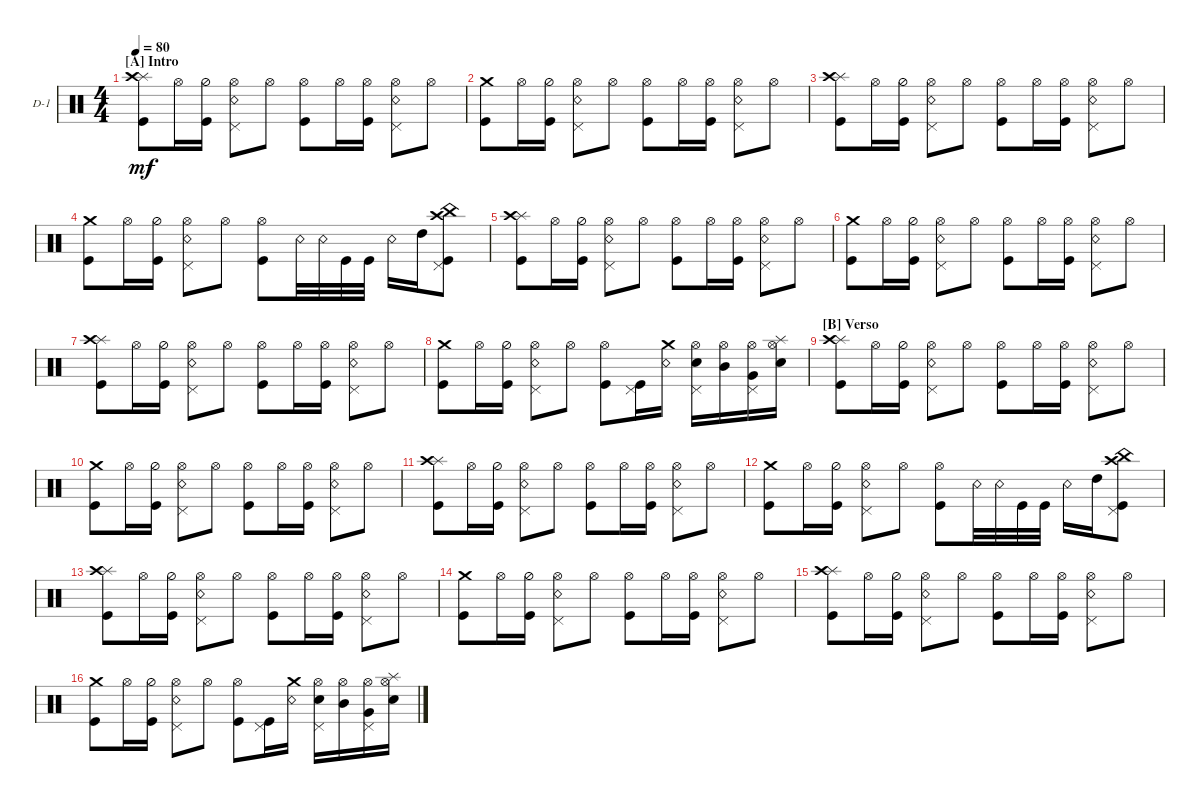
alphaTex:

\defaultSystemsLayout 4
\bracketExtendMode groupsimilarinstruments
\firstSystemTrackNameOrientation horizontal
\otherSystemsTrackNameOrientation horizontal
\track ("Drums" "D-1") {multiBarRest instrument percussion}
\staff {score}
\articulation defaults
\ts (4 4)
\section ("A" "Intro")
\tempo 80
\clef neutral
\ks aminor
("Kick (hit)" "Splash (hit)" "Crash high (hit)").8{dy mf} "Hi-Hat (open)".16 ("Hi-Hat (half)" "Kick (hit)").16 ("Hi-Hat (open)" "Pedal Hi-Hat (hit)" "Snare (rim shot)").8 "Hi-Hat (open)".8 ("Kick (hit)" "Hi-Hat (open)").8 "Hi-Hat (open)".16 ("Hi-Hat (open)" "Kick (hit)").16 ("Hi-Hat (open)" "Pedal Hi-Hat (hit)" "Snare (rim shot)").8 "Hi-Hat (open)".8 |
("Kick (hit)" "Crash medium (hit)").8 "Hi-Hat (open)".16 ("Hi-Hat (half)" "Kick (hit)").16 ("Hi-Hat (open)" "Pedal Hi-Hat (hit)" "Snare (rim shot)").8 "Hi-Hat (open)".8 ("Kick (hit)" "Hi-Hat (open)").8 "Hi-Hat (open)".16 ("Hi-Hat (open)" "Kick (hit)").16 ("Hi-Hat (open)" "Pedal Hi-Hat (hit)" "Snare (rim shot)").8 "Hi-Hat (open)".8 |
("Kick (hit)" "Splash (hit)" "Crash high (hit)").8 "Hi-Hat (open)".16 ("Hi-Hat (half)" "Kick (hit)").16 ("Hi-Hat (open)" "Pedal Hi-Hat (hit)" "Snare (rim shot)").8 "Hi-Hat (open)".8 ("Kick (hit)" "Hi-Hat (open)").8 "Hi-Hat (open)".16 ("Hi-Hat (open)" "Kick (hit)").16 ("Hi-Hat (open)" "Pedal Hi-Hat (hit)" "Snare (rim shot)").8 "Hi-Hat (open)".8 |
("Kick (hit)" "Crash medium (hit)").8 "Hi-Hat (open)".16 ("Hi-Hat (half)" "Kick (hit)").16 ("Hi-Hat (open)" "Pedal Hi-Hat (hit)" "Snare (rim shot)").8 "Hi-Hat (open)".8 ("Kick (hit)" "Hi-Hat (open)").8 "Snare (rim shot)".32 "Snare (rim shot)".32 "Kick (hit)".32 "Kick (hit)".32 "Snare (rim shot)".16 "High Tom (hit)".16 ("Kick (hit)" "Pedal Hi-Hat (hit)" "Crash high (hit)" "China (hit)").8 |
("Kick (hit)" "Splash (hit)" "Crash high (hit)").8 "Hi-Hat (open)".16 ("Hi-Hat (half)" "Kick (hit)").16 ("Hi-Hat (open)" "Pedal Hi-Hat (hit)" "Snare (rim shot)").8 "Hi-Hat (open)".8 ("Kick (hit)" "Hi-Hat (open)").8 "Hi-Hat (open)".16 ("Hi-Hat (open)" "Kick (hit)").16 ("Hi-Hat (open)" "Pedal Hi-Hat (hit)" "Snare (rim shot)").8 "Hi-Hat (open)".8 |
("Kick (hit)" "Crash medium (hit)").8 "Hi-Hat (open)".16 ("Hi-Hat (half)" "Kick (hit)").16 ("Hi-Hat (open)" "Pedal Hi-Hat (hit)" "Snare (rim shot)").8 "Hi-Hat (open)".8 ("Kick (hit)" "Hi-Hat (open)").8 "Hi-Hat (open)".16 ("Hi-Hat (open)" "Kick (hit)").16 ("Hi-Hat (open)" "Pedal Hi-Hat (hit)" "Snare (rim shot)").8 "Hi-Hat (open)".8 |
("Kick (hit)" "Splash (hit)" "Crash high (hit)").8 "Hi-Hat (open)".16 ("Hi-Hat (half)" "Kick (hit)").16 ("Hi-Hat (open)" "Pedal Hi-Hat (hit)" "Snare (rim shot)").8 "Hi-Hat (open)".8 ("Kick (hit)" "Hi-Hat (open)").8 "Hi-Hat (open)".16 ("Hi-Hat (open)" "Kick (hit)").16 ("Hi-Hat (open)" "Pedal Hi-Hat (hit)" "Snare (rim shot)").8 "Hi-Hat (open)".8 |
("Kick (hit)" "Crash medium (hit)").8 "Hi-Hat (open)".16 ("Hi-Hat (half)" "Kick (hit)").16 ("Hi-Hat (open)" "Pedal Hi-Hat (hit)" "Snare (rim shot)").8 "Hi-Hat (open)".8 ("Kick (hit)" "Hi-Hat (open)").8 ("Kick (hit)" "Pedal Hi-Hat (hit)").16 ("Snare (rim shot)" "Crash medium (hit)").16 ("Snare (hit) 2" "Pedal Hi-Hat (hit)" "Hi-Hat (open)").16 ("Mid Tom (hit)" "Hi-Hat (open)").16 ("Very Low Tom (hit)" "Pedal Hi-Hat (hit)" "Hi-Hat (open)").16 ("Snare (hit) 2" "Hi-Hat (open)" "Splash (hit)").16 |
\section ("B" "Verso")
("Kick (hit)" "Splash (hit)" "Crash high (hit)").8 "Hi-Hat (open)".16 ("Hi-Hat (half)" "Kick (hit)").16 ("Hi-Hat (open)" "Pedal Hi-Hat (hit)" "Snare (rim shot)").8 "Hi-Hat (open)".8 ("Kick (hit)" "Hi-Hat (open)").8 "Hi-Hat (open)".16 ("Hi-Hat (open)" "Kick (hit)").16 ("Hi-Hat (open)" "Pedal Hi-Hat (hit)" "Snare (rim shot)").8 "Hi-Hat (open)".8 |
("Kick (hit)" "Crash medium (hit)").8 "Hi-Hat (open)".16 ("Hi-Hat (half)" "Kick (hit)").16 ("Hi-Hat (open)" "Pedal Hi-Hat (hit)" "Snare (rim shot)").8 "Hi-Hat (open)".8 ("Kick (hit)" "Hi-Hat (open)").8 "Hi-Hat (open)".16 ("Hi-Hat (open)" "Kick (hit)").16 ("Hi-Hat (open)" "Pedal Hi-Hat (hit)" "Snare (rim shot)").8 "Hi-Hat (open)".8 |
("Kick (hit)" "Splash (hit)" "Crash high (hit)").8 "Hi-Hat (open)".16 ("Hi-Hat (half)" "Kick (hit)").16 ("Hi-Hat (open)" "Pedal Hi-Hat (hit)" "Snare (rim shot)").8 "Hi-Hat (open)".8 ("Kick (hit)" "Hi-Hat (open)").8 "Hi-Hat (open)".16 ("Hi-Hat (open)" "Kick (hit)").16 ("Hi-Hat (open)" "Pedal Hi-Hat (hit)" "Snare (rim shot)").8 "Hi-Hat (open)".8 |
("Kick (hit)" "Crash medium (hit)").8 "Hi-Hat (open)".16 ("Hi-Hat (half)" "Kick (hit)").16 ("Hi-Hat (open)" "Pedal Hi-Hat (hit)" "Snare (rim shot)").8 "Hi-Hat (open)".8 ("Kick (hit)" "Hi-Hat (open)").8 "Snare (rim shot)".32 "Snare (rim shot)".32 "Kick (hit)".32 "Kick (hit)".32 "Snare (rim shot)".16 "High Tom (hit)".16 ("Kick (hit)" "Pedal Hi-Hat (hit)" "Crash high (hit)" "China (hit)").8 |
("Kick (hit)" "Splash (hit)" "Crash high (hit)").8 "Hi-Hat (open)".16 ("Hi-Hat (half)" "Kick (hit)").16 ("Hi-Hat (open)" "Pedal Hi-Hat (hit)" "Snare (rim shot)").8 "Hi-Hat (open)".8 ("Kick (hit)" "Hi-Hat (open)").8 "Hi-Hat (open)".16 ("Hi-Hat (open)" "Kick (hit)").16 ("Hi-Hat (open)" "Pedal Hi-Hat (hit)" "Snare (rim shot)").8 "Hi-Hat (open)".8 |
("Kick (hit)" "Crash medium (hit)").8 "Hi-Hat (open)".16 ("Hi-Hat (half)" "Kick (hit)").16 ("Hi-Hat (open)" "Pedal Hi-Hat (hit)" "Snare (rim shot)").8 "Hi-Hat (open)".8 ("Kick (hit)" "Hi-Hat (open)").8 "Hi-Hat (open)".16 ("Hi-Hat (open)" "Kick (hit)").16 ("Hi-Hat (open)" "Pedal Hi-Hat (hit)" "Snare (rim shot)").8 "Hi-Hat (open)".8 |
("Kick (hit)" "Splash (hit)" "Crash high (hit)").8 "Hi-Hat (open)".16 ("Hi-Hat (half)" "Kick (hit)").16 ("Hi-Hat (open)" "Pedal Hi-Hat (hit)" "Snare (rim shot)").8 "Hi-Hat (open)".8 ("Kick (hit)" "Hi-Hat (open)").8 "Hi-Hat (open)".16 ("Hi-Hat (open)" "Kick (hit)").16 ("Hi-Hat (open)" "Pedal Hi-Hat (hit)" "Snare (rim shot)").8 "Hi-Hat (open)".8 |
("Kick (hit)" "Crash medium (hit)").8 "Hi-Hat (open)".16 ("Hi-Hat (half)" "Kick (hit)").16 ("Hi-Hat (open)" "Pedal Hi-Hat (hit)" "Snare (rim shot)").8 "Hi-Hat (open)".8 ("Kick (hit)" "Hi-Hat (open)").8 ("Kick (hit)" "Pedal Hi-Hat (hit)").16 ("Snare (rim shot)" "Crash medium (hit)").16 ("Snare (hit) 2" "Pedal Hi-Hat (hit)" "Hi-Hat (open)").16 ("Mid Tom (hit)" "Hi-Hat (open)").16 ("Very Low Tom (hit)" "Pedal Hi-Hat (hit)" "Hi-Hat (open)").16 ("Snare (hit) 2" "Hi-Hat (open)" "Splash (hit)").16
